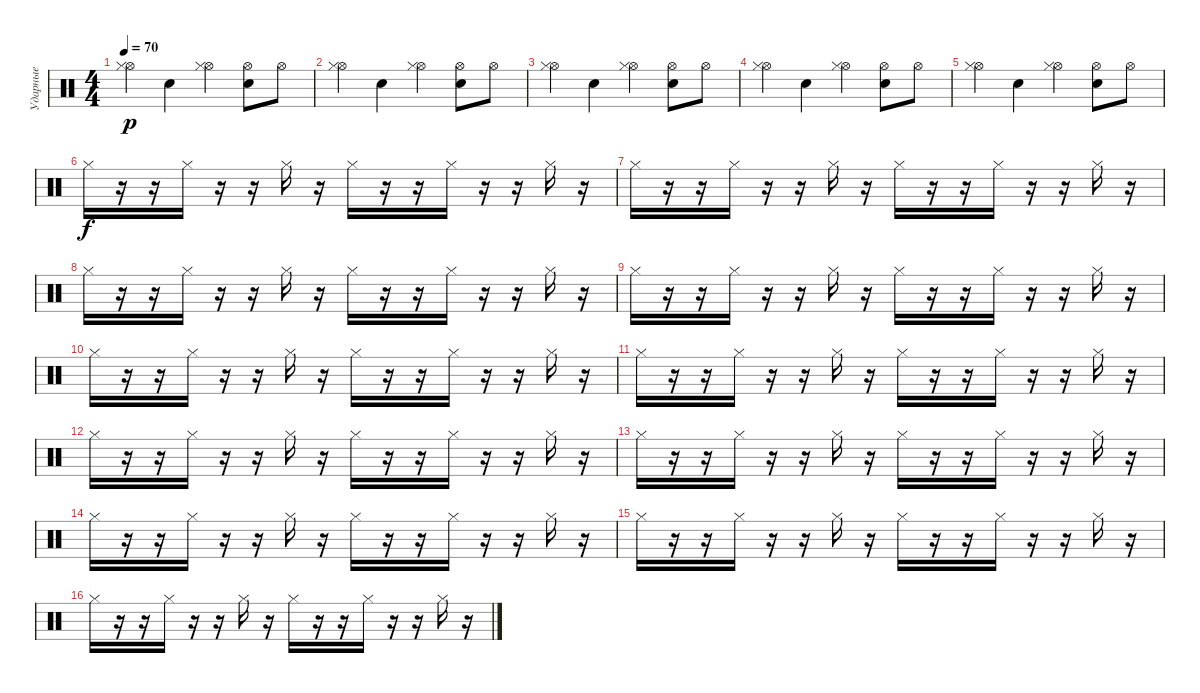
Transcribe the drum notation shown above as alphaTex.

\track ("Ударные" "Ударные") {instrument percussion}
\staff {score}
\articulation defaults
\ts (4 4)
\tempo 70
\clef neutral
\ks c
("Hi-Hat (open)" "Hi-Hat (closed)").4{dy p} "Electric Snare (hit)".4 ("Hi-Hat (open)" "Hi-Hat (closed)").4 ("Hi-Hat (open)" "Electric Snare (hit)").8 "Hi-Hat (open)".8 |
("Hi-Hat (open)" "Hi-Hat (closed)").4 "Electric Snare (hit)".4 ("Hi-Hat (open)" "Hi-Hat (closed)").4 ("Hi-Hat (open)" "Electric Snare (hit)").8 "Hi-Hat (open)".8 |
("Hi-Hat (open)" "Hi-Hat (closed)").4 "Electric Snare (hit)".4 ("Hi-Hat (open)" "Hi-Hat (closed)").4 ("Hi-Hat (open)" "Electric Snare (hit)").8 "Hi-Hat (open)".8 |
("Hi-Hat (open)" "Hi-Hat (closed)").4 "Electric Snare (hit)".4 ("Hi-Hat (open)" "Hi-Hat (closed)").4 ("Hi-Hat (open)" "Electric Snare (hit)").8 "Hi-Hat (open)".8 |
("Hi-Hat (open)" "Hi-Hat (closed)").4 "Electric Snare (hit)".4 ("Hi-Hat (open)" "Hi-Hat (closed)").4 ("Hi-Hat (open)" "Electric Snare (hit)").8 "Hi-Hat (open)".8 |
"Hi-Hat (closed)".16{dy f} r.16 r.16 "Hi-Hat (closed)".16 r.16 r.16 "Hi-Hat (closed)".16 r.16 "Hi-Hat (closed)".16 r.16 r.16 "Hi-Hat (closed)".16 r.16 r.16 "Hi-Hat (closed)".16 r.16 |
"Hi-Hat (closed)".16 r.16 r.16 "Hi-Hat (closed)".16 r.16 r.16 "Hi-Hat (closed)".16 r.16 "Hi-Hat (closed)".16 r.16 r.16 "Hi-Hat (closed)".16 r.16 r.16 "Hi-Hat (closed)".16 r.16 |
"Hi-Hat (closed)".16 r.16 r.16 "Hi-Hat (closed)".16 r.16 r.16 "Hi-Hat (closed)".16 r.16 "Hi-Hat (closed)".16 r.16 r.16 "Hi-Hat (closed)".16 r.16 r.16 "Hi-Hat (closed)".16 r.16 |
"Hi-Hat (closed)".16 r.16 r.16 "Hi-Hat (closed)".16 r.16 r.16 "Hi-Hat (closed)".16 r.16 "Hi-Hat (closed)".16 r.16 r.16 "Hi-Hat (closed)".16 r.16 r.16 "Hi-Hat (closed)".16 r.16 |
"Hi-Hat (closed)".16 r.16 r.16 "Hi-Hat (closed)".16 r.16 r.16 "Hi-Hat (closed)".16 r.16 "Hi-Hat (closed)".16 r.16 r.16 "Hi-Hat (closed)".16 r.16 r.16 "Hi-Hat (closed)".16 r.16 |
"Hi-Hat (closed)".16 r.16 r.16 "Hi-Hat (closed)".16 r.16 r.16 "Hi-Hat (closed)".16 r.16 "Hi-Hat (closed)".16 r.16 r.16 "Hi-Hat (closed)".16 r.16 r.16 "Hi-Hat (closed)".16 r.16 |
"Hi-Hat (closed)".16 r.16 r.16 "Hi-Hat (closed)".16 r.16 r.16 "Hi-Hat (closed)".16 r.16 "Hi-Hat (closed)".16 r.16 r.16 "Hi-Hat (closed)".16 r.16 r.16 "Hi-Hat (closed)".16 r.16 |
"Hi-Hat (closed)".16 r.16 r.16 "Hi-Hat (closed)".16 r.16 r.16 "Hi-Hat (closed)".16 r.16 "Hi-Hat (closed)".16 r.16 r.16 "Hi-Hat (closed)".16 r.16 r.16 "Hi-Hat (closed)".16 r.16 |
"Hi-Hat (closed)".16 r.16 r.16 "Hi-Hat (closed)".16 r.16 r.16 "Hi-Hat (closed)".16 r.16 "Hi-Hat (closed)".16 r.16 r.16 "Hi-Hat (closed)".16 r.16 r.16 "Hi-Hat (closed)".16 r.16 |
"Hi-Hat (closed)".16 r.16 r.16 "Hi-Hat (closed)".16 r.16 r.16 "Hi-Hat (closed)".16 r.16 "Hi-Hat (closed)".16 r.16 r.16 "Hi-Hat (closed)".16 r.16 r.16 "Hi-Hat (closed)".16 r.16 |
"Hi-Hat (closed)".16 r.16 r.16 "Hi-Hat (closed)".16 r.16 r.16 "Hi-Hat (closed)".16 r.16 "Hi-Hat (closed)".16 r.16 r.16 "Hi-Hat (closed)".16 r.16 r.16 "Hi-Hat (closed)".16 r.16
